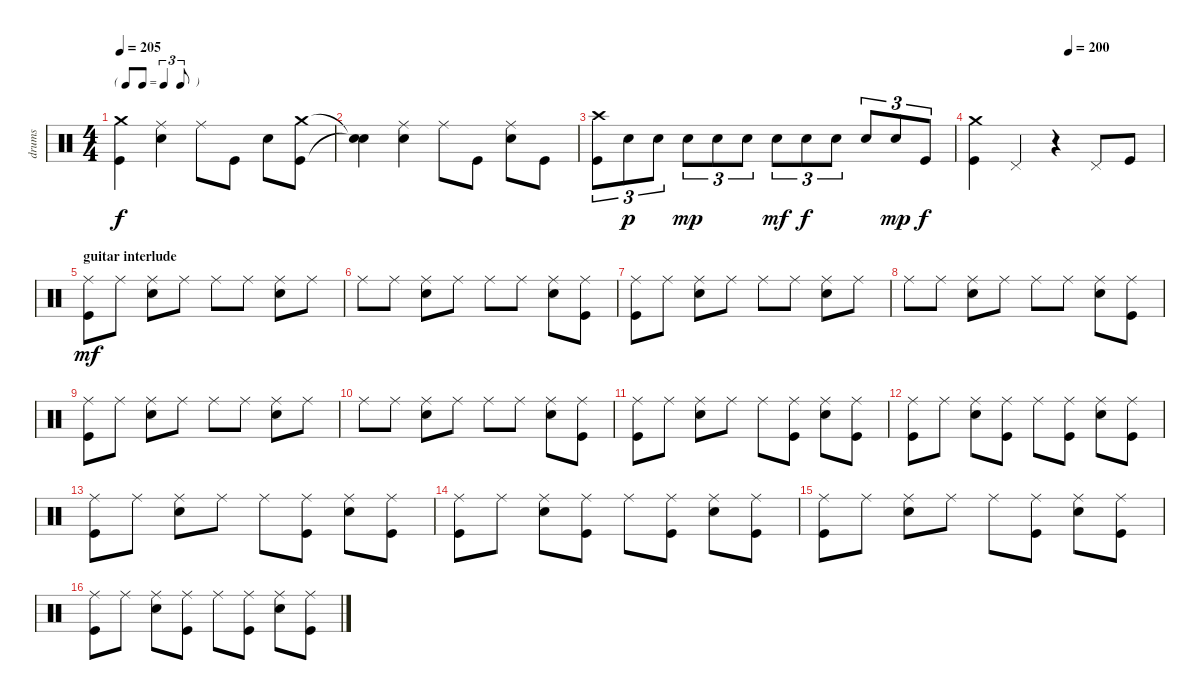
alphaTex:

\track ("drums" "drums") {instrument percussion}
\staff {score}
\articulation defaults
\ts (4 4)
\tf triplet8th
\tempo 205
\clef neutral
\ks c
("Crash medium (hit)" "Kick (hit)").4{dy f} ("Ride (middle)" "Snare (hit) 2").4 "Ride (middle)".8 "Kick (hit)".8 "Snare (hit) 2".8 ("Crash medium (hit)" "Kick (hit)").8 |
("Snare (hit)"{t} "Snare (hit)"{t}).4 ("Ride (middle)" "Snare (hit) 2").4 "Ride (middle)".8 "Kick (hit)".8 ("Ride (middle)" "Snare (hit) 2").8 "Kick (hit)".8 |
("Crash high (hit)" "Kick (hit)").8{tu (3 2)} "Snare (hit) 2".8{tu (3 2) dy p} "Snare (hit) 2".8{tu (3 2)} "Snare (hit) 2".8{tu (3 2) dy mp} "Snare (hit) 2".8{tu (3 2)} "Snare (hit) 2".8{tu (3 2)} "Snare (hit) 2".8{tu (3 2) dy mf} "Snare (hit) 2".8{tu (3 2) dy f} "Snare (hit) 2".8{tu (3 2)} "Snare (hit) 2".8{tu (3 2)} "Snare (hit) 2".8{tu (3 2) dy mp} "Kick (hit)".8{tu (3 2) dy f} |
\tempo (200 0.5)
("Crash medium (hit)" "Kick (hit)").4 "Pedal Hi-Hat (hit)".4 r.4 "Pedal Hi-Hat (hit)".8 "Kick (hit)".8 |
\section ("" "guitar interlude")
("Ride (middle)" "Kick (hit)").8{dy mf} "Ride (middle)".8 ("Ride (middle)" "Snare (hit) 2").8 "Ride (middle)".8 "Ride (middle)".8 "Ride (middle)".8 ("Ride (middle)" "Snare (hit) 2").8 "Ride (middle)".8 |
"Ride (middle)".8 "Ride (middle)".8 ("Ride (middle)" "Snare (hit) 2").8 "Ride (middle)".8 "Ride (middle)".8 "Ride (middle)".8 ("Ride (middle)" "Snare (hit) 2").8 ("Ride (middle)" "Kick (hit)").8 |
("Ride (middle)" "Kick (hit)").8 "Ride (middle)".8 ("Ride (middle)" "Snare (hit) 2").8 "Ride (middle)".8 "Ride (middle)".8 "Ride (middle)".8 ("Ride (middle)" "Snare (hit) 2").8 "Ride (middle)".8 |
"Ride (middle)".8 "Ride (middle)".8 ("Ride (middle)" "Snare (hit) 2").8 "Ride (middle)".8 "Ride (middle)".8 "Ride (middle)".8 ("Ride (middle)" "Snare (hit) 2").8 ("Ride (middle)" "Kick (hit)").8 |
("Ride (middle)" "Kick (hit)").8 "Ride (middle)".8 ("Ride (middle)" "Snare (hit) 2").8 "Ride (middle)".8 "Ride (middle)".8 "Ride (middle)".8 ("Ride (middle)" "Snare (hit) 2").8 "Ride (middle)".8 |
"Ride (middle)".8 "Ride (middle)".8 ("Ride (middle)" "Snare (hit) 2").8 "Ride (middle)".8 "Ride (middle)".8 "Ride (middle)".8 ("Ride (middle)" "Snare (hit) 2").8 ("Ride (middle)" "Kick (hit)").8 |
("Ride (middle)" "Kick (hit)").8 "Ride (middle)".8 ("Ride (middle)" "Snare (hit) 2").8 "Ride (middle)".8 "Ride (middle)".8 ("Ride (middle)" "Kick (hit)").8 ("Ride (middle)" "Snare (hit) 2").8 ("Ride (middle)" "Kick (hit)").8 |
("Ride (middle)" "Kick (hit)").8 "Ride (middle)".8 ("Ride (middle)" "Snare (hit) 2").8 ("Ride (middle)" "Kick (hit)").8 "Ride (middle)".8 ("Ride (middle)" "Kick (hit)").8 ("Ride (middle)" "Snare (hit) 2").8 ("Ride (middle)" "Kick (hit)").8 |
("Ride (middle)" "Kick (hit)").8 "Ride (middle)".8 ("Ride (middle)" "Snare (hit) 2").8 "Ride (middle)".8 "Ride (middle)".8 ("Ride (middle)" "Kick (hit)").8 ("Ride (middle)" "Snare (hit) 2").8 ("Ride (middle)" "Kick (hit)").8 |
("Ride (middle)" "Kick (hit)").8 "Ride (middle)".8 ("Ride (middle)" "Snare (hit) 2").8 ("Ride (middle)" "Kick (hit)").8 "Ride (middle)".8 ("Ride (middle)" "Kick (hit)").8 ("Ride (middle)" "Snare (hit) 2").8 ("Ride (middle)" "Kick (hit)").8 |
("Ride (middle)" "Kick (hit)").8 "Ride (middle)".8 ("Ride (middle)" "Snare (hit) 2").8 "Ride (middle)".8 "Ride (middle)".8 ("Ride (middle)" "Kick (hit)").8 ("Ride (middle)" "Snare (hit) 2").8 ("Ride (middle)" "Kick (hit)").8 |
("Ride (middle)" "Kick (hit)").8 "Ride (middle)".8 ("Ride (middle)" "Snare (hit) 2").8 ("Ride (middle)" "Kick (hit)").8 "Ride (middle)".8 ("Ride (middle)" "Kick (hit)").8 ("Ride (middle)" "Snare (hit) 2").8 ("Ride (middle)" "Kick (hit)").8
